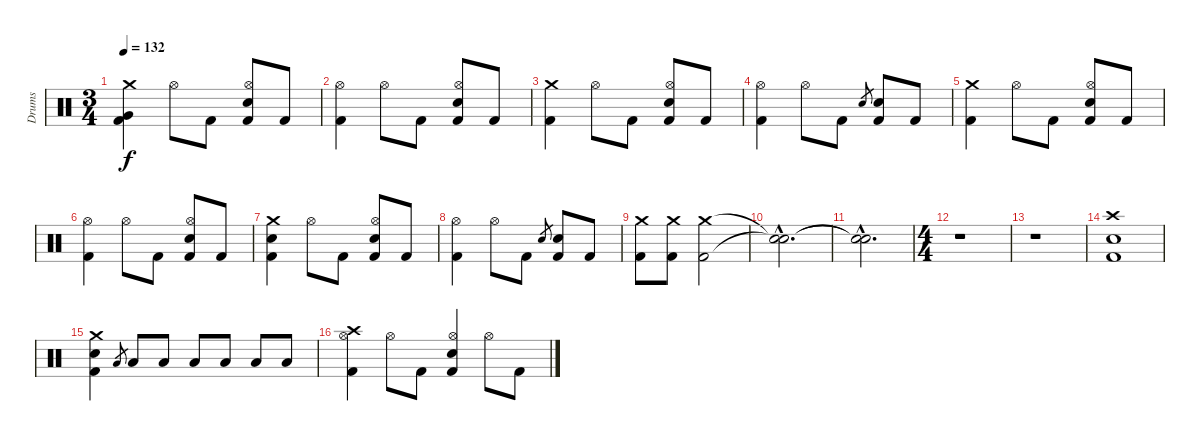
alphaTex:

\track ("Drums" "Drums") {instrument percussion}
\staff {score}
\articulation defaults
\ts (3 4)
\tempo 132
\clef neutral
\ks c
("Crash medium (hit)" "Very Low Tom (hit)" "Kick (hit) 2").4{dy f} "Hi-Hat (open)".8 "Kick (hit) 2".8 ("Hi-Hat (open)" "Electric Snare (hit)" "Kick (hit) 2").8 "Kick (hit) 2".8 |
("Hi-Hat (open)" "Kick (hit) 2").4 "Hi-Hat (open)".8 "Kick (hit) 2".8 ("Hi-Hat (open)" "Electric Snare (hit)" "Kick (hit) 2").8 "Kick (hit) 2".8 |
("Crash medium (hit)" "Kick (hit) 2").4 "Hi-Hat (open)".8 "Kick (hit) 2".8 ("Hi-Hat (open)" "Electric Snare (hit)" "Kick (hit) 2").8 "Kick (hit) 2".8 |
("Hi-Hat (open)" "Kick (hit) 2").4 "Hi-Hat (open)".8 "Kick (hit) 2".8 "Electric Snare (hit)".8{gr} ("Electric Snare (hit)" "Kick (hit) 2").8 "Kick (hit) 2".8 |
("Crash medium (hit)" "Kick (hit) 2").4 "Hi-Hat (open)".8 "Kick (hit) 2".8 ("Hi-Hat (open)" "Electric Snare (hit)" "Kick (hit) 2").8 "Kick (hit) 2".8 |
("Hi-Hat (open)" "Kick (hit) 2").4 "Hi-Hat (open)".8 "Kick (hit) 2".8 ("Hi-Hat (open)" "Electric Snare (hit)" "Kick (hit) 2").8 "Kick (hit) 2".8 |
("Crash medium (hit)" "Electric Snare (hit)" "Kick (hit) 2").4 "Hi-Hat (open)".8 "Kick (hit) 2".8 ("Hi-Hat (open)" "Electric Snare (hit)" "Kick (hit) 2").8 "Kick (hit) 2".8 |
("Hi-Hat (open)" "Kick (hit) 2").4 "Hi-Hat (open)".8 "Kick (hit) 2".8 "Electric Snare (hit)".8{gr} ("Electric Snare (hit)" "Kick (hit) 2").8 "Kick (hit) 2".8 |
("Crash medium (hit)" "Kick (hit) 2").8 ("Crash medium (hit)" "Kick (hit) 2").8 ("Crash medium (hit)" "Kick (hit) 2").2 |
("Snare (hit)"{hac t} "Snare (hit)"{hac t}).2{d} |
("Snare (hit)"{hac t} "Snare (hit)"{hac t}).2{d} |
\ts (4 4)
r.1 |
r.1 |
("Crash high (hit)" "Electric Snare (hit)" "Kick (hit) 2").1 |
("Crash medium (hit)" "Electric Snare (hit)" "Kick (hit) 2").4 "Low Tom (hit)".8{gr} "Low Tom (hit)".8 "Low Tom (hit)".8 "Low Tom (hit)".8 "Low Tom (hit)".8 "Low Tom (hit)".8 "Low Tom (hit)".8 |
("Crash high (hit)" "Hi-Hat (open)" "Kick (hit) 2").4 "Hi-Hat (open)".8 "Kick (hit) 2".8 ("Hi-Hat (open)" "Electric Snare (hit)" "Kick (hit) 2").4 "Hi-Hat (open)".8 "Kick (hit) 2".8
